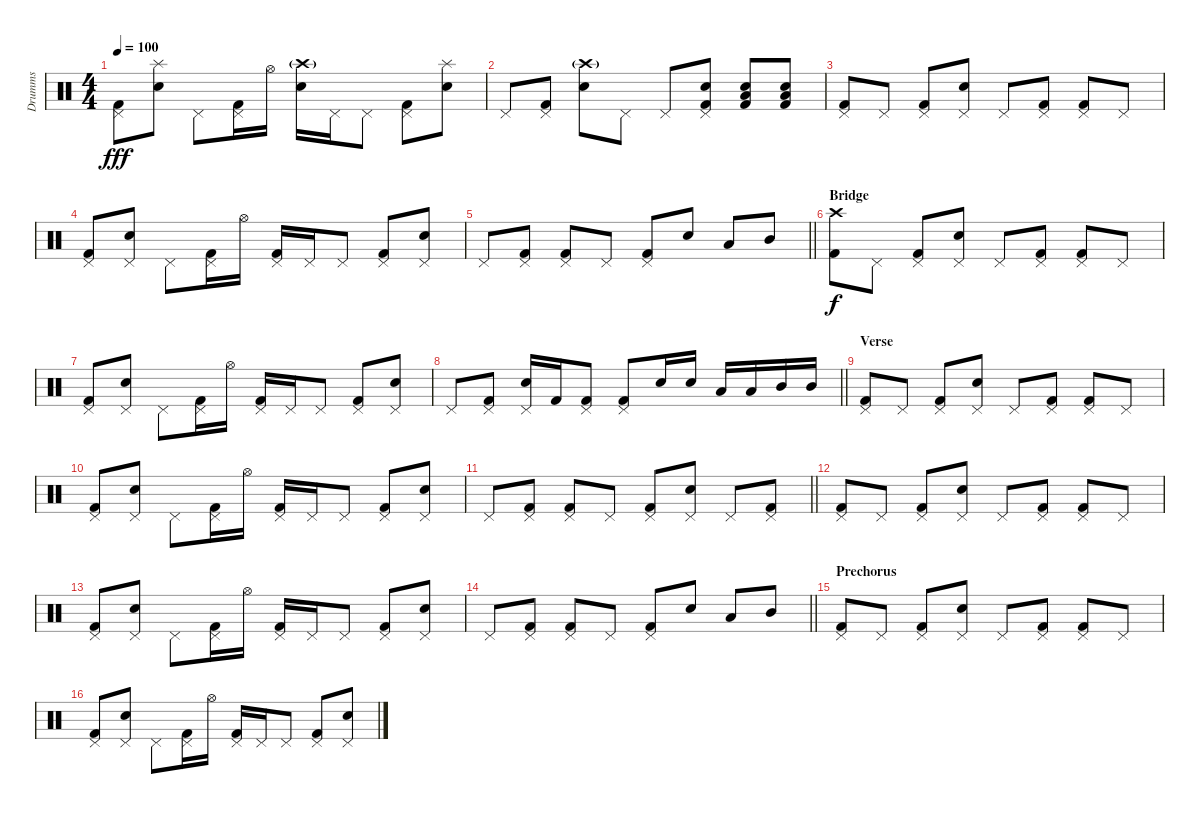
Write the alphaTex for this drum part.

\track ("Drumms" "Drumms") {instrument percussion}
\staff {score}
\articulation defaults
\ts (4 4)
\tempo 100
\clef neutral
\ks c
("Pedal Hi-Hat (hit)" "Kick (hit) 2").8{dy fff} ("Splash (hit)" "Snare (hit) 2").8 "Pedal Hi-Hat (hit)".8 ("Pedal Hi-Hat (hit)" "Kick (hit) 2").16 "Hi-Hat (open)".16 ("Crash high (hit)"{g} "Snare (hit) 2").16 "Pedal Hi-Hat (hit)".16 "Pedal Hi-Hat (hit)".8 ("Pedal Hi-Hat (hit)" "Kick (hit) 2").8 ("Splash (hit)" "Snare (hit) 2").8 |
"Pedal Hi-Hat (hit)".8 ("Pedal Hi-Hat (hit)" "Kick (hit) 2").8 ("Crash high (hit)"{g} "Snare (hit) 2").8 "Pedal Hi-Hat (hit)".8 "Pedal Hi-Hat (hit)".8 ("Pedal Hi-Hat (hit)" "Snare (hit) 2" "Kick (hit) 2").8 ("Low Tom (hit)" "Snare (hit) 2" "Kick (hit) 2").8 ("Low Tom (hit)" "Snare (hit) 2" "Kick (hit) 2").8 |
("Pedal Hi-Hat (hit)" "Kick (hit) 2").8 "Pedal Hi-Hat (hit)".8 ("Pedal Hi-Hat (hit)" "Kick (hit) 2").8 ("Pedal Hi-Hat (hit)" "Snare (hit) 2").8 "Pedal Hi-Hat (hit)".8 ("Pedal Hi-Hat (hit)" "Kick (hit) 2").8 ("Pedal Hi-Hat (hit)" "Kick (hit) 2").8 "Pedal Hi-Hat (hit)".8 |
("Pedal Hi-Hat (hit)" "Kick (hit) 2").8 ("Pedal Hi-Hat (hit)" "Snare (hit) 2").8 "Pedal Hi-Hat (hit)".8 ("Pedal Hi-Hat (hit)" "Kick (hit) 2").16 "Hi-Hat (open)".16 ("Pedal Hi-Hat (hit)" "Kick (hit) 2").16 "Pedal Hi-Hat (hit)".16 "Pedal Hi-Hat (hit)".8 ("Pedal Hi-Hat (hit)" "Kick (hit) 2").8 ("Pedal Hi-Hat (hit)" "Snare (hit) 2").8 |
\barLineRight lightlight "Pedal Hi-Hat (hit)".8
("Pedal Hi-Hat (hit)" "Kick (hit) 2").8 ("Pedal Hi-Hat (hit)" "Kick (hit) 2").8 "Pedal Hi-Hat (hit)".8 ("Pedal Hi-Hat (hit)" "Kick (hit) 2").8 "Snare (hit) 2".8 "Low Tom (hit)".8 "Mid Tom (hit)".8 |
\section ("" "Bridge")
("Crash high (hit)" "Kick (hit) 2").8{dy f} "Pedal Hi-Hat (hit)".8 ("Pedal Hi-Hat (hit)" "Kick (hit) 2").8 ("Pedal Hi-Hat (hit)" "Snare (hit) 2").8 "Pedal Hi-Hat (hit)".8 ("Pedal Hi-Hat (hit)" "Kick (hit) 2").8 ("Pedal Hi-Hat (hit)" "Kick (hit) 2").8 "Pedal Hi-Hat (hit)".8 |
("Pedal Hi-Hat (hit)" "Kick (hit) 2").8 ("Pedal Hi-Hat (hit)" "Snare (hit) 2").8 "Pedal Hi-Hat (hit)".8 ("Pedal Hi-Hat (hit)" "Kick (hit) 2").16 "Hi-Hat (open)".16 ("Pedal Hi-Hat (hit)" "Kick (hit) 2").16 "Pedal Hi-Hat (hit)".16 "Pedal Hi-Hat (hit)".8 ("Pedal Hi-Hat (hit)" "Kick (hit) 2").8 ("Pedal Hi-Hat (hit)" "Snare (hit) 2").8 |
\barLineRight lightlight "Pedal Hi-Hat (hit)".8
("Pedal Hi-Hat (hit)" "Kick (hit) 2").8 ("Pedal Hi-Hat (hit)" "Snare (hit) 2").16 "Kick (hit) 2".16 ("Pedal Hi-Hat (hit)" "Kick (hit) 2").8 ("Pedal Hi-Hat (hit)" "Kick (hit) 2").8 "Snare (hit) 2".16 "Snare (hit) 2".16 "Low Tom (hit)".16 "Low Tom (hit)".16 "Mid Tom (hit)".16 "Mid Tom (hit)".16 |
\section ("" "Verse")
("Pedal Hi-Hat (hit)" "Kick (hit) 2").8 "Pedal Hi-Hat (hit)".8 ("Pedal Hi-Hat (hit)" "Kick (hit) 2").8 ("Pedal Hi-Hat (hit)" "Snare (hit) 2").8 "Pedal Hi-Hat (hit)".8 ("Pedal Hi-Hat (hit)" "Kick (hit) 2").8 ("Pedal Hi-Hat (hit)" "Kick (hit) 2").8 "Pedal Hi-Hat (hit)".8 |
("Pedal Hi-Hat (hit)" "Kick (hit) 2").8 ("Pedal Hi-Hat (hit)" "Snare (hit) 2").8 "Pedal Hi-Hat (hit)".8 ("Pedal Hi-Hat (hit)" "Kick (hit) 2").16 "Hi-Hat (open)".16 ("Pedal Hi-Hat (hit)" "Kick (hit) 2").16 "Pedal Hi-Hat (hit)".16 "Pedal Hi-Hat (hit)".8 ("Pedal Hi-Hat (hit)" "Kick (hit) 2").8 ("Pedal Hi-Hat (hit)" "Snare (hit) 2").8 |
\barLineRight lightlight "Pedal Hi-Hat (hit)".8
("Pedal Hi-Hat (hit)" "Kick (hit) 2").8 ("Pedal Hi-Hat (hit)" "Kick (hit) 2").8 "Pedal Hi-Hat (hit)".8 ("Pedal Hi-Hat (hit)" "Kick (hit) 2").8 ("Pedal Hi-Hat (hit)" "Snare (hit) 2").8 "Pedal Hi-Hat (hit)".8 ("Pedal Hi-Hat (hit)" "Kick (hit) 2").8 |
("Pedal Hi-Hat (hit)" "Kick (hit) 2").8 "Pedal Hi-Hat (hit)".8 ("Pedal Hi-Hat (hit)" "Kick (hit) 2").8 ("Pedal Hi-Hat (hit)" "Snare (hit) 2").8 "Pedal Hi-Hat (hit)".8 ("Pedal Hi-Hat (hit)" "Kick (hit) 2").8 ("Pedal Hi-Hat (hit)" "Kick (hit) 2").8 "Pedal Hi-Hat (hit)".8 |
("Pedal Hi-Hat (hit)" "Kick (hit) 2").8 ("Pedal Hi-Hat (hit)" "Snare (hit) 2").8 "Pedal Hi-Hat (hit)".8 ("Pedal Hi-Hat (hit)" "Kick (hit) 2").16 "Hi-Hat (open)".16 ("Pedal Hi-Hat (hit)" "Kick (hit) 2").16 "Pedal Hi-Hat (hit)".16 "Pedal Hi-Hat (hit)".8 ("Pedal Hi-Hat (hit)" "Kick (hit) 2").8 ("Pedal Hi-Hat (hit)" "Snare (hit) 2").8 |
\barLineRight lightlight "Pedal Hi-Hat (hit)".8
("Pedal Hi-Hat (hit)" "Kick (hit) 2").8 ("Pedal Hi-Hat (hit)" "Kick (hit) 2").8 "Pedal Hi-Hat (hit)".8 ("Pedal Hi-Hat (hit)" "Kick (hit) 2").8 "Snare (hit) 2".8 "Low Tom (hit)".8 "Mid Tom (hit)".8 |
\section ("" "Prechorus")
("Pedal Hi-Hat (hit)" "Kick (hit) 2").8 "Pedal Hi-Hat (hit)".8 ("Pedal Hi-Hat (hit)" "Kick (hit) 2").8 ("Pedal Hi-Hat (hit)" "Snare (hit) 2").8 "Pedal Hi-Hat (hit)".8 ("Pedal Hi-Hat (hit)" "Kick (hit) 2").8 ("Pedal Hi-Hat (hit)" "Kick (hit) 2").8 "Pedal Hi-Hat (hit)".8 |
("Pedal Hi-Hat (hit)" "Kick (hit) 2").8 ("Pedal Hi-Hat (hit)" "Snare (hit) 2").8 "Pedal Hi-Hat (hit)".8 ("Pedal Hi-Hat (hit)" "Kick (hit) 2").16 "Hi-Hat (open)".16 ("Pedal Hi-Hat (hit)" "Kick (hit) 2").16 "Pedal Hi-Hat (hit)".16 "Pedal Hi-Hat (hit)".8 ("Pedal Hi-Hat (hit)" "Kick (hit) 2").8 ("Pedal Hi-Hat (hit)" "Snare (hit) 2").8
